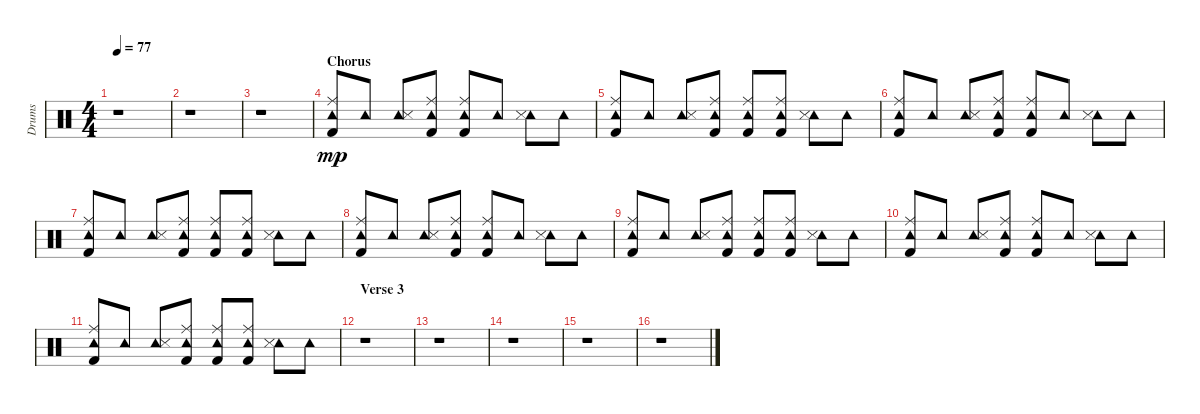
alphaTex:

\track ("Drums" "Drums") {instrument percussion}
\staff {score}
\articulation defaults
\ts (4 4)
\tempo 77
\clef neutral
\ks c
r.1{dy f} |
r.1 |
r.1 |
\section ("" "Chorus")
("Tambourine (hit)" "Ride (middle)" "Kick (hit) 2").8{dy mp} "Tambourine (hit)".8 ("Tambourine (hit)" "Snare (side stick) 3").8 ("Tambourine (hit)" "Ride (middle)" "Kick (hit) 2").8 ("Tambourine (hit)" "Ride (middle)" "Kick (hit) 2").8 "Tambourine (hit)".8 ("Tambourine (hit)" "Snare (side stick) 3").8 "Tambourine (hit)".8 |
("Tambourine (hit)" "Ride (middle)" "Kick (hit) 2").8 "Tambourine (hit)".8 ("Tambourine (hit)" "Snare (side stick) 3").8 ("Tambourine (hit)" "Ride (middle)" "Kick (hit) 2").8 ("Tambourine (hit)" "Ride (middle)" "Kick (hit) 2").8 ("Tambourine (hit)" "Ride (middle)" "Kick (hit) 2").8 ("Tambourine (hit)" "Snare (side stick) 3").8 "Tambourine (hit)".8 |
("Tambourine (hit)" "Ride (middle)" "Kick (hit) 2").8 "Tambourine (hit)".8 ("Tambourine (hit)" "Snare (side stick) 3").8 ("Tambourine (hit)" "Ride (middle)" "Kick (hit) 2").8 ("Tambourine (hit)" "Ride (middle)" "Kick (hit) 2").8 "Tambourine (hit)".8 ("Tambourine (hit)" "Snare (side stick) 3").8 "Tambourine (hit)".8 |
("Tambourine (hit)" "Ride (middle)" "Kick (hit) 2").8 "Tambourine (hit)".8 ("Tambourine (hit)" "Snare (side stick) 3").8 ("Tambourine (hit)" "Ride (middle)" "Kick (hit) 2").8 ("Tambourine (hit)" "Ride (middle)" "Kick (hit) 2").8 ("Tambourine (hit)" "Ride (middle)" "Kick (hit) 2").8 ("Tambourine (hit)" "Snare (side stick) 3").8 "Tambourine (hit)".8 |
("Tambourine (hit)" "Ride (middle)" "Kick (hit) 2").8 "Tambourine (hit)".8 ("Tambourine (hit)" "Snare (side stick) 3").8 ("Tambourine (hit)" "Ride (middle)" "Kick (hit) 2").8 ("Tambourine (hit)" "Ride (middle)" "Kick (hit) 2").8 "Tambourine (hit)".8 ("Tambourine (hit)" "Snare (side stick) 3").8 "Tambourine (hit)".8 |
("Tambourine (hit)" "Ride (middle)" "Kick (hit) 2").8 "Tambourine (hit)".8 ("Tambourine (hit)" "Snare (side stick) 3").8 ("Tambourine (hit)" "Ride (middle)" "Kick (hit) 2").8 ("Tambourine (hit)" "Ride (middle)" "Kick (hit) 2").8 ("Tambourine (hit)" "Ride (middle)" "Kick (hit) 2").8 ("Tambourine (hit)" "Snare (side stick) 3").8 "Tambourine (hit)".8 |
("Tambourine (hit)" "Ride (middle)" "Kick (hit) 2").8 "Tambourine (hit)".8 ("Tambourine (hit)" "Snare (side stick) 3").8 ("Tambourine (hit)" "Ride (middle)" "Kick (hit) 2").8 ("Tambourine (hit)" "Ride (middle)" "Kick (hit) 2").8 "Tambourine (hit)".8 ("Tambourine (hit)" "Snare (side stick) 3").8 "Tambourine (hit)".8 |
("Tambourine (hit)" "Ride (middle)" "Kick (hit) 2").8 "Tambourine (hit)".8 ("Tambourine (hit)" "Snare (side stick) 3").8 ("Tambourine (hit)" "Ride (middle)" "Kick (hit) 2").8 ("Tambourine (hit)" "Ride (middle)" "Kick (hit) 2").8 ("Tambourine (hit)" "Ride (middle)" "Kick (hit) 2").8 ("Tambourine (hit)" "Snare (side stick) 3").8 "Tambourine (hit)".8 |
\section ("" "Verse 3")
r.1 |
r.1 |
r.1 |
r.1 |
r.1
